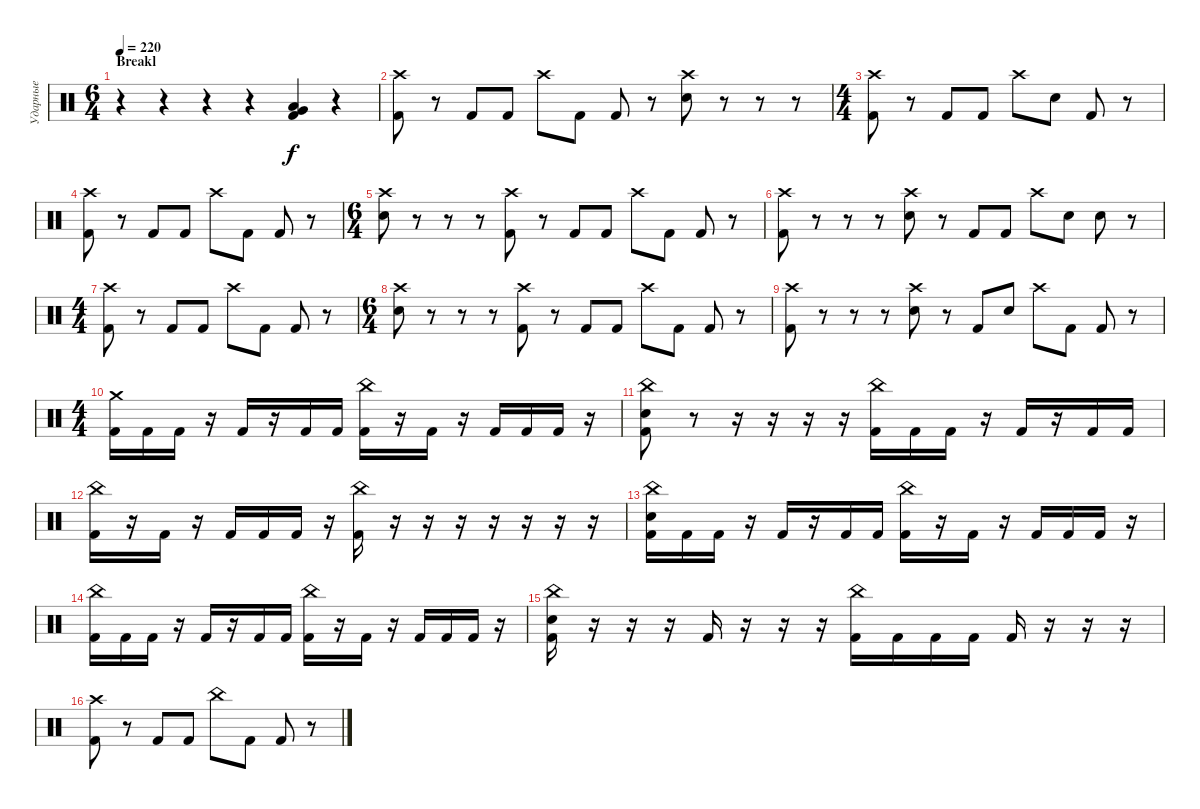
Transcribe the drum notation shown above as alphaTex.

\track ("Ударные" "Ударные") {instrument percussion}
\staff {score}
\articulation defaults
\ts (6 4)
\section ("" "Breakl")
\tempo 220
\clef neutral
\ks c
r.4{dy f} r.4 r.4 r.4 ("Low Floor Tom (hit)" "Very Low Tom (hit)" "Kick (hit) 2").4 r.4 |
("Crash high (hit)" "Kick (hit) 2").8 r.8 "Kick (hit) 2".8 "Kick (hit) 2".8 "Crash high (hit)".8 "Kick (hit) 2".8 "Kick (hit) 2".8 r.8 ("Crash high (hit)" "Electric Snare (hit)").8 r.8 r.8 r.8 |
\ts (4 4)
("Crash high (hit)" "Kick (hit) 2").8 r.8 "Kick (hit) 2".8 "Kick (hit) 2".8 "Crash high (hit)".8 "Electric Snare (hit)".8 "Kick (hit) 2".8 r.8 |
("Crash high (hit)" "Kick (hit) 2").8 r.8 "Kick (hit) 2".8 "Kick (hit) 2".8 "Crash high (hit)".8 "Kick (hit) 2".8 "Kick (hit) 2".8 r.8 |
\ts (6 4)
("Crash high (hit)" "Electric Snare (hit)").8 r.8 r.8 r.8 ("Crash high (hit)" "Kick (hit) 2").8 r.8 "Kick (hit) 2".8 "Kick (hit) 2".8 "Crash high (hit)".8 "Kick (hit) 2".8 "Kick (hit) 2".8 r.8 |
("Crash high (hit)" "Kick (hit) 2").8 r.8 r.8 r.8 ("Crash high (hit)" "Electric Snare (hit)").8 r.8 "Kick (hit) 2".8 "Kick (hit) 2".8 "Crash high (hit)".8 "Electric Snare (hit)".8 "Electric Snare (hit)".8 r.8 |
\ts (4 4)
("Crash high (hit)" "Kick (hit) 2").8 r.8 "Kick (hit) 2".8 "Kick (hit) 2".8 "Crash high (hit)".8 "Kick (hit) 2".8 "Kick (hit) 2".8 r.8 |
\ts (6 4)
("Crash high (hit)" "Electric Snare (hit)").8 r.8 r.8 r.8 ("Crash high (hit)" "Kick (hit) 2").8 r.8 "Kick (hit) 2".8 "Kick (hit) 2".8 "Crash high (hit)".8 "Kick (hit) 2".8 "Kick (hit) 2".8 r.8 |
("Crash high (hit)" "Kick (hit) 2").8 r.8 r.8 r.8 ("Crash high (hit)" "Electric Snare (hit)").8 r.8 "Kick (hit) 2".8 "Electric Snare (hit)".8 "Crash high (hit)".8 "Kick (hit) 2".8 "Kick (hit) 2".8 r.8 |
\ts (4 4)
("Kick (hit) 2" "Crash medium (hit)").16 "Kick (hit) 2".16 "Kick (hit) 2".16 r.16 "Kick (hit) 2".16 r.16 "Kick (hit) 2".16 "Kick (hit) 2".16 ("Kick (hit) 2" "China (hit)").16 r.16 "Kick (hit) 2".16 r.16 "Kick (hit) 2".16 "Kick (hit) 2".16 "Kick (hit) 2".16 r.16 |
("Kick (hit) 2" "Electric Snare (hit)" "China (hit)").8 r.8 r.16 r.16 r.16 r.16 ("Kick (hit) 2" "China (hit)").16 "Kick (hit) 2".16 "Kick (hit) 2".16 r.16 "Kick (hit) 2".16 r.16 "Kick (hit) 2".16 "Kick (hit) 2".16 |
("Kick (hit) 2" "China (hit)").16 r.16 "Kick (hit) 2".16 r.16 "Kick (hit) 2".16 "Kick (hit) 2".16 "Kick (hit) 2".16 r.16 ("Kick (hit) 2" "China (hit)").16 r.16 r.16 r.16 r.16 r.16 r.16 r.16 |
("Kick (hit) 2" "Electric Snare (hit)" "China (hit)").16 "Kick (hit) 2".16 "Kick (hit) 2".16 r.16 "Kick (hit) 2".16 r.16 "Kick (hit) 2".16 "Kick (hit) 2".16 ("Kick (hit) 2" "China (hit)").16 r.16 "Kick (hit) 2".16 r.16 "Kick (hit) 2".16 "Kick (hit) 2".16 "Kick (hit) 2".16 r.16 |
("Kick (hit) 2" "China (hit)").16 "Kick (hit) 2".16 "Kick (hit) 2".16 r.16 "Kick (hit) 2".16 r.16 "Kick (hit) 2".16 "Kick (hit) 2".16 ("Kick (hit) 2" "China (hit)").16 r.16 "Kick (hit) 2".16 r.16 "Kick (hit) 2".16 "Kick (hit) 2".16 "Kick (hit) 2".16 r.16 |
("Kick (hit) 2" "Electric Snare (hit)" "China (hit)").16 r.16 r.16 r.16 "Kick (hit) 2".16 r.16 r.16 r.16 ("Kick (hit) 2" "China (hit)").16 "Kick (hit) 2".16 "Kick (hit) 2".16 "Kick (hit) 2".16 "Kick (hit) 2".16 r.16 r.16 r.16 |
("Kick (hit) 2" "Crash high (hit)").8 r.8 "Kick (hit) 2".8 "Kick (hit) 2".8 "China (hit)".8 "Kick (hit) 2".8 "Kick (hit) 2".8 r.8
